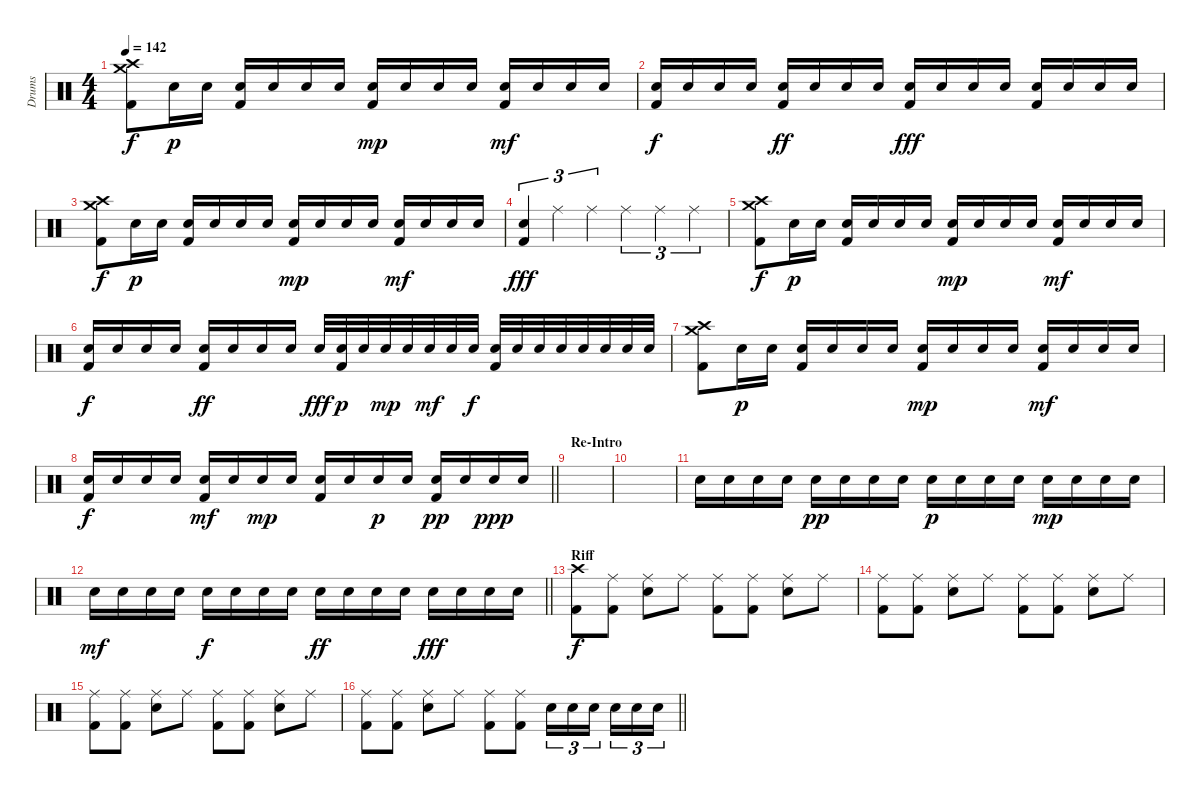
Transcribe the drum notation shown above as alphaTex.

\track ("Drums" "Drums") {instrument percussion}
\staff {score}
\articulation defaults
\ts (4 4)
\tempo 142
\clef neutral
\ks c
("Crash high (hit)" "Crash medium (hit)" "Kick (hit) 2").8{dy f} "Electric Snare (hit)".16{dy p} "Electric Snare (hit)".16 ("Electric Snare (hit)" "Kick (hit) 2").16 "Electric Snare (hit)".16 "Electric Snare (hit)".16 "Electric Snare (hit)".16 ("Electric Snare (hit)" "Kick (hit) 2").16{dy mp} "Electric Snare (hit)".16 "Electric Snare (hit)".16 "Electric Snare (hit)".16 ("Electric Snare (hit)" "Kick (hit) 2").16{dy mf} "Electric Snare (hit)".16 "Electric Snare (hit)".16 "Electric Snare (hit)".16 |
("Electric Snare (hit)" "Kick (hit) 2").16{dy f} "Electric Snare (hit)".16 "Electric Snare (hit)".16 "Electric Snare (hit)".16 ("Electric Snare (hit)" "Kick (hit) 2").16{dy ff} "Electric Snare (hit)".16 "Electric Snare (hit)".16 "Electric Snare (hit)".16 ("Electric Snare (hit)" "Kick (hit) 2").16{dy fff} "Electric Snare (hit)".16 "Electric Snare (hit)".16 "Electric Snare (hit)".16 ("Electric Snare (hit)" "Kick (hit) 2").16 "Electric Snare (hit)".16 "Electric Snare (hit)".16 "Electric Snare (hit)".16 |
("Crash high (hit)" "Crash medium (hit)" "Kick (hit) 2").8{dy f} "Electric Snare (hit)".16{dy p} "Electric Snare (hit)".16 ("Electric Snare (hit)" "Kick (hit) 2").16 "Electric Snare (hit)".16 "Electric Snare (hit)".16 "Electric Snare (hit)".16 ("Electric Snare (hit)" "Kick (hit) 2").16{dy mp} "Electric Snare (hit)".16 "Electric Snare (hit)".16 "Electric Snare (hit)".16 ("Electric Snare (hit)" "Kick (hit) 2").16{dy mf} "Electric Snare (hit)".16 "Electric Snare (hit)".16 "Electric Snare (hit)".16 |
("Electric Snare (hit)" "Kick (hit) 2").4{tu (3 2) dy fff} "Ride (middle)".4{tu (3 2)} "Ride (middle)".4{tu (3 2)} "Ride (middle)".4{tu (3 2)} "Ride (middle)".4{tu (3 2)} "Ride (middle)".4{tu (3 2)} |
("Crash high (hit)" "Crash medium (hit)" "Kick (hit) 2").8{dy f} "Electric Snare (hit)".16{dy p} "Electric Snare (hit)".16 ("Electric Snare (hit)" "Kick (hit) 2").16 "Electric Snare (hit)".16 "Electric Snare (hit)".16 "Electric Snare (hit)".16 ("Electric Snare (hit)" "Kick (hit) 2").16{dy mp} "Electric Snare (hit)".16 "Electric Snare (hit)".16 "Electric Snare (hit)".16 ("Electric Snare (hit)" "Kick (hit) 2").16{dy mf} "Electric Snare (hit)".16 "Electric Snare (hit)".16 "Electric Snare (hit)".16 |
("Electric Snare (hit)" "Kick (hit) 2").16{dy f} "Electric Snare (hit)".16 "Electric Snare (hit)".16 "Electric Snare (hit)".16 ("Electric Snare (hit)" "Kick (hit) 2").16{dy ff} "Electric Snare (hit)".16 "Electric Snare (hit)".16 "Electric Snare (hit)".16 "Electric Snare (hit)".32{dy fff} ("Electric Snare (hit)" "Kick (hit) 2").32{dy p} "Electric Snare (hit)".32 "Electric Snare (hit)".32{dy mp} "Electric Snare (hit)".32 "Electric Snare (hit)".32{dy mf} "Electric Snare (hit)".32 "Electric Snare (hit)".32{dy f} ("Electric Snare (hit)" "Kick (hit) 2").32 "Electric Snare (hit)".32 "Electric Snare (hit)".32 "Electric Snare (hit)".32 "Electric Snare (hit)".32 "Electric Snare (hit)".32 "Electric Snare (hit)".32 "Electric Snare (hit)".32 |
("Crash high (hit)" "Crash medium (hit)" "Kick (hit) 2").8 "Electric Snare (hit)".16{dy p} "Electric Snare (hit)".16 ("Electric Snare (hit)" "Kick (hit) 2").16 "Electric Snare (hit)".16 "Electric Snare (hit)".16 "Electric Snare (hit)".16 ("Electric Snare (hit)" "Kick (hit) 2").16{dy mp} "Electric Snare (hit)".16 "Electric Snare (hit)".16 "Electric Snare (hit)".16 ("Electric Snare (hit)" "Kick (hit) 2").16{dy mf} "Electric Snare (hit)".16 "Electric Snare (hit)".16 "Electric Snare (hit)".16 |
\barLineRight lightlight
("Electric Snare (hit)" "Kick (hit) 2").16{dy f} "Electric Snare (hit)".16 "Electric Snare (hit)".16 "Electric Snare (hit)".16 ("Electric Snare (hit)" "Kick (hit) 2").16{dy mf} "Electric Snare (hit)".16 "Electric Snare (hit)".16{dy mp} "Electric Snare (hit)".16 ("Electric Snare (hit)" "Kick (hit) 2").16 "Electric Snare (hit)".16 "Electric Snare (hit)".16{dy p} "Electric Snare (hit)".16 ("Electric Snare (hit)" "Kick (hit) 2").16{dy pp} "Electric Snare (hit)".16 "Electric Snare (hit)".16{dy ppp} "Electric Snare (hit)".16 |
\section ("" "Re-Intro")
|
|
"Electric Snare (hit)".16 "Electric Snare (hit)".16 "Electric Snare (hit)".16 "Electric Snare (hit)".16 "Electric Snare (hit)".16{dy pp} "Electric Snare (hit)".16 "Electric Snare (hit)".16 "Electric Snare (hit)".16 "Electric Snare (hit)".16{dy p} "Electric Snare (hit)".16 "Electric Snare (hit)".16 "Electric Snare (hit)".16 "Electric Snare (hit)".16{dy mp} "Electric Snare (hit)".16 "Electric Snare (hit)".16 "Electric Snare (hit)".16 |
\barLineRight lightlight "Electric Snare (hit)".16{dy mf} "Electric Snare (hit)".16 "Electric Snare (hit)".16 "Electric Snare (hit)".16 "Electric Snare (hit)".16{dy f} "Electric Snare (hit)".16 "Electric Snare (hit)".16 "Electric Snare (hit)".16 "Electric Snare (hit)".16{dy ff} "Electric Snare (hit)".16 "Electric Snare (hit)".16 "Electric Snare (hit)".16 "Electric Snare (hit)".16{dy fff} "Electric Snare (hit)".16 "Electric Snare (hit)".16 "Electric Snare (hit)".16
|
\section ("" "Riff")
("Crash high (hit)" "Kick (hit) 2").8{dy f} ("Ride (middle)" "Kick (hit) 2").8 ("Ride (middle)" "Electric Snare (hit)").8 "Ride (middle)".8 ("Ride (middle)" "Kick (hit) 2").8 ("Ride (middle)" "Kick (hit) 2").8 ("Ride (middle)" "Electric Snare (hit)").8 "Ride (middle)".8 |
("Ride (middle)" "Kick (hit) 2").8 ("Ride (middle)" "Kick (hit) 2").8 ("Ride (middle)" "Electric Snare (hit)").8 "Ride (middle)".8 ("Ride (middle)" "Kick (hit) 2").8 ("Ride (middle)" "Kick (hit) 2").8 ("Ride (middle)" "Electric Snare (hit)").8 "Ride (middle)".8 |
("Ride (middle)" "Kick (hit) 2").8 ("Ride (middle)" "Kick (hit) 2").8 ("Ride (middle)" "Electric Snare (hit)").8 "Ride (middle)".8 ("Ride (middle)" "Kick (hit) 2").8 ("Ride (middle)" "Kick (hit) 2").8 ("Ride (middle)" "Electric Snare (hit)").8 "Ride (middle)".8 |
\barLineRight lightlight
("Ride (middle)" "Kick (hit) 2").8 ("Ride (middle)" "Kick (hit) 2").8 ("Ride (middle)" "Electric Snare (hit)").8 "Ride (middle)".8 ("Ride (middle)" "Kick (hit) 2").8 ("Ride (middle)" "Kick (hit) 2").8 "Electric Snare (hit)".16{tu (3 2)} "Electric Snare (hit)".16{tu (3 2)} "Electric Snare (hit)".16{tu (3 2) beam splitsecondary} "Electric Snare (hit)".16{tu (3 2)} "Electric Snare (hit)".16{tu (3 2)} "Electric Snare (hit)".16{tu (3 2)}
